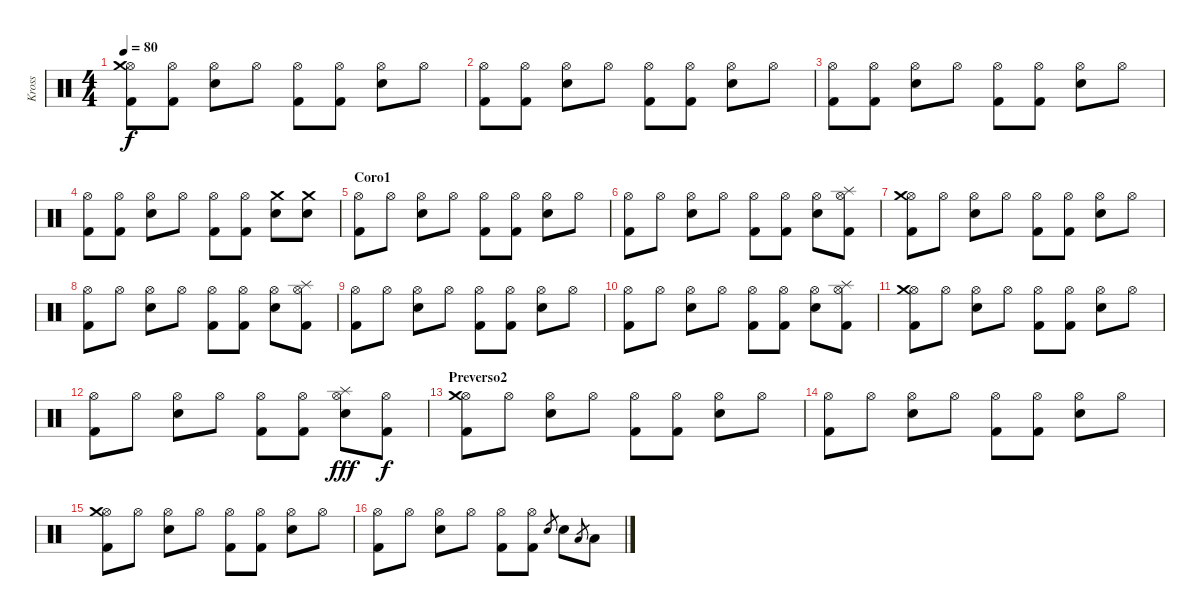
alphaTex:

\track ("Kross" "Kross") {instrument percussion}
\staff {score}
\articulation defaults
\ts (4 4)
\tempo 80
\clef neutral
\ks c
("Hi-Hat (open)" "Crash medium (hit)" "Kick (hit) 2").8{dy f} ("Hi-Hat (open)" "Kick (hit) 2").8 ("Hi-Hat (open)" "Snare (hit) 2").8 "Hi-Hat (open)".8 ("Hi-Hat (open)" "Kick (hit) 2").8 ("Hi-Hat (open)" "Kick (hit) 2").8 ("Hi-Hat (open)" "Snare (hit) 2").8 "Hi-Hat (open)".8 |
("Hi-Hat (open)" "Kick (hit) 2").8 ("Hi-Hat (open)" "Kick (hit) 2").8 ("Hi-Hat (open)" "Snare (hit) 2").8 "Hi-Hat (open)".8 ("Hi-Hat (open)" "Kick (hit) 2").8 ("Hi-Hat (open)" "Kick (hit) 2").8 ("Hi-Hat (open)" "Snare (hit) 2").8 "Hi-Hat (open)".8 |
("Hi-Hat (open)" "Kick (hit) 2").8 ("Hi-Hat (open)" "Kick (hit) 2").8 ("Hi-Hat (open)" "Snare (hit) 2").8 "Hi-Hat (open)".8 ("Hi-Hat (open)" "Kick (hit) 2").8 ("Hi-Hat (open)" "Kick (hit) 2").8 ("Hi-Hat (open)" "Snare (hit) 2").8 "Hi-Hat (open)".8 |
("Hi-Hat (open)" "Kick (hit) 2").8 ("Hi-Hat (open)" "Kick (hit) 2").8 ("Hi-Hat (open)" "Snare (hit) 2").8 "Hi-Hat (open)".8 ("Hi-Hat (open)" "Kick (hit) 2").8 ("Hi-Hat (open)" "Kick (hit) 2").8 ("Crash medium (hit)" "Snare (hit) 2").8 ("Crash medium (hit)" "Snare (hit) 2").8 |
\section ("" "Coro1")
("Hi-Hat (open)" "Kick (hit) 2").8 "Hi-Hat (open)".8 ("Hi-Hat (open)" "Snare (hit) 2").8 "Hi-Hat (open)".8 ("Hi-Hat (open)" "Kick (hit) 2").8 ("Hi-Hat (open)" "Kick (hit) 2").8 ("Hi-Hat (open)" "Snare (hit) 2").8 "Hi-Hat (open)".8 |
("Hi-Hat (open)" "Kick (hit) 2").8 "Hi-Hat (open)".8 ("Hi-Hat (open)" "Snare (hit) 2").8 "Hi-Hat (open)".8 ("Hi-Hat (open)" "Kick (hit) 2").8 ("Hi-Hat (open)" "Kick (hit) 2").8 ("Hi-Hat (open)" "Snare (hit) 2").8 ("Hi-Hat (open)" "Splash (hit)" "Kick (hit) 2").8 |
("Hi-Hat (open)" "Crash medium (hit)" "Kick (hit) 2").8 "Hi-Hat (open)".8 ("Hi-Hat (open)" "Snare (hit) 2").8 "Hi-Hat (open)".8 ("Hi-Hat (open)" "Kick (hit) 2").8 ("Hi-Hat (open)" "Kick (hit) 2").8 ("Hi-Hat (open)" "Snare (hit) 2").8 "Hi-Hat (open)".8 |
("Hi-Hat (open)" "Kick (hit) 2").8 "Hi-Hat (open)".8 ("Hi-Hat (open)" "Snare (hit) 2").8 "Hi-Hat (open)".8 ("Hi-Hat (open)" "Kick (hit) 2").8 ("Hi-Hat (open)" "Kick (hit) 2").8 ("Hi-Hat (open)" "Snare (hit) 2").8 ("Hi-Hat (open)" "Splash (hit)" "Kick (hit) 2").8 |
("Hi-Hat (open)" "Kick (hit) 2").8 "Hi-Hat (open)".8 ("Hi-Hat (open)" "Snare (hit) 2").8 "Hi-Hat (open)".8 ("Hi-Hat (open)" "Kick (hit) 2").8 ("Hi-Hat (open)" "Kick (hit) 2").8 ("Hi-Hat (open)" "Snare (hit) 2").8 "Hi-Hat (open)".8 |
("Hi-Hat (open)" "Kick (hit) 2").8 "Hi-Hat (open)".8 ("Hi-Hat (open)" "Snare (hit) 2").8 "Hi-Hat (open)".8 ("Hi-Hat (open)" "Kick (hit) 2").8 ("Hi-Hat (open)" "Kick (hit) 2").8 ("Hi-Hat (open)" "Snare (hit) 2").8 ("Hi-Hat (open)" "Splash (hit)" "Kick (hit) 2").8 |
("Hi-Hat (open)" "Crash medium (hit)" "Kick (hit) 2").8 "Hi-Hat (open)".8 ("Hi-Hat (open)" "Snare (hit) 2").8 "Hi-Hat (open)".8 ("Hi-Hat (open)" "Kick (hit) 2").8 ("Hi-Hat (open)" "Kick (hit) 2").8 ("Hi-Hat (open)" "Snare (hit) 2").8 "Hi-Hat (open)".8 |
("Hi-Hat (open)" "Kick (hit) 2").8 "Hi-Hat (open)".8 ("Hi-Hat (open)" "Snare (hit) 2").8 "Hi-Hat (open)".8 ("Hi-Hat (open)" "Kick (hit) 2").8 ("Hi-Hat (open)" "Kick (hit) 2").8 ("Hi-Hat (open)" "Splash (hit)" "Snare (hit) 2").8{dy fff} ("Hi-Hat (open)" "Kick (hit) 2").8{dy f} |
\section ("" "Preverso2")
("Hi-Hat (open)" "Crash medium (hit)" "Kick (hit) 2").8 "Hi-Hat (open)".8 ("Hi-Hat (open)" "Snare (hit) 2").8 "Hi-Hat (open)".8 ("Hi-Hat (open)" "Kick (hit) 2").8 ("Hi-Hat (open)" "Kick (hit) 2").8 ("Hi-Hat (open)" "Snare (hit) 2").8 "Hi-Hat (open)".8 |
("Hi-Hat (open)" "Kick (hit) 2").8 "Hi-Hat (open)".8 ("Hi-Hat (open)" "Snare (hit) 2").8 "Hi-Hat (open)".8 ("Hi-Hat (open)" "Kick (hit) 2").8 ("Hi-Hat (open)" "Kick (hit) 2").8 ("Hi-Hat (open)" "Snare (hit) 2").8 "Hi-Hat (open)".8 |
("Hi-Hat (open)" "Crash medium (hit)" "Kick (hit) 2").8 "Hi-Hat (open)".8 ("Hi-Hat (open)" "Snare (hit) 2").8 "Hi-Hat (open)".8 ("Hi-Hat (open)" "Kick (hit) 2").8 ("Hi-Hat (open)" "Kick (hit) 2").8 ("Hi-Hat (open)" "Snare (hit) 2").8 "Hi-Hat (open)".8 |
("Hi-Hat (open)" "Kick (hit) 2").8 "Hi-Hat (open)".8 ("Hi-Hat (open)" "Snare (hit) 2").8 "Hi-Hat (open)".8 ("Hi-Hat (open)" "Kick (hit) 2").8 ("Hi-Hat (open)" "Kick (hit) 2").8 "Snare (hit) 2".8{gr} "Snare (hit) 2".8 "Low Tom (hit)".8{gr} "Low Tom (hit)".8
